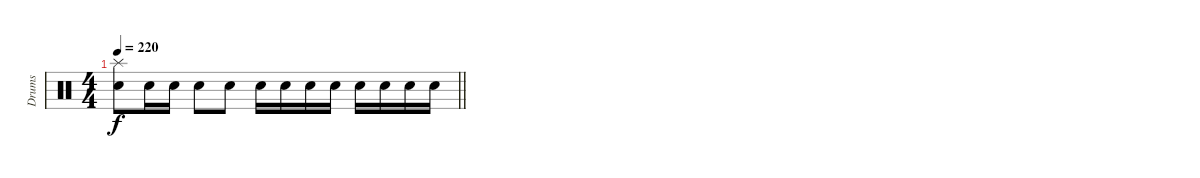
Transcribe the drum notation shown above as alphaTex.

\track ("Drums" "Drums") {instrument percussion}
\staff {score}
\articulation defaults
\ts (4 4)
\tempo 220
\clef neutral
\barLineRight lightlight
\ks c
("Splash (hit)" "Electric Snare (hit)").8{dy f} "Electric Snare (hit)".16 "Electric Snare (hit)".16 "Electric Snare (hit)".8 "Electric Snare (hit)".8 "Electric Snare (hit)".16 "Electric Snare (hit)".16 "Electric Snare (hit)".16 "Electric Snare (hit)".16 "Electric Snare (hit)".16 "Electric Snare (hit)".16 "Electric Snare (hit)".16 "Electric Snare (hit)".16
